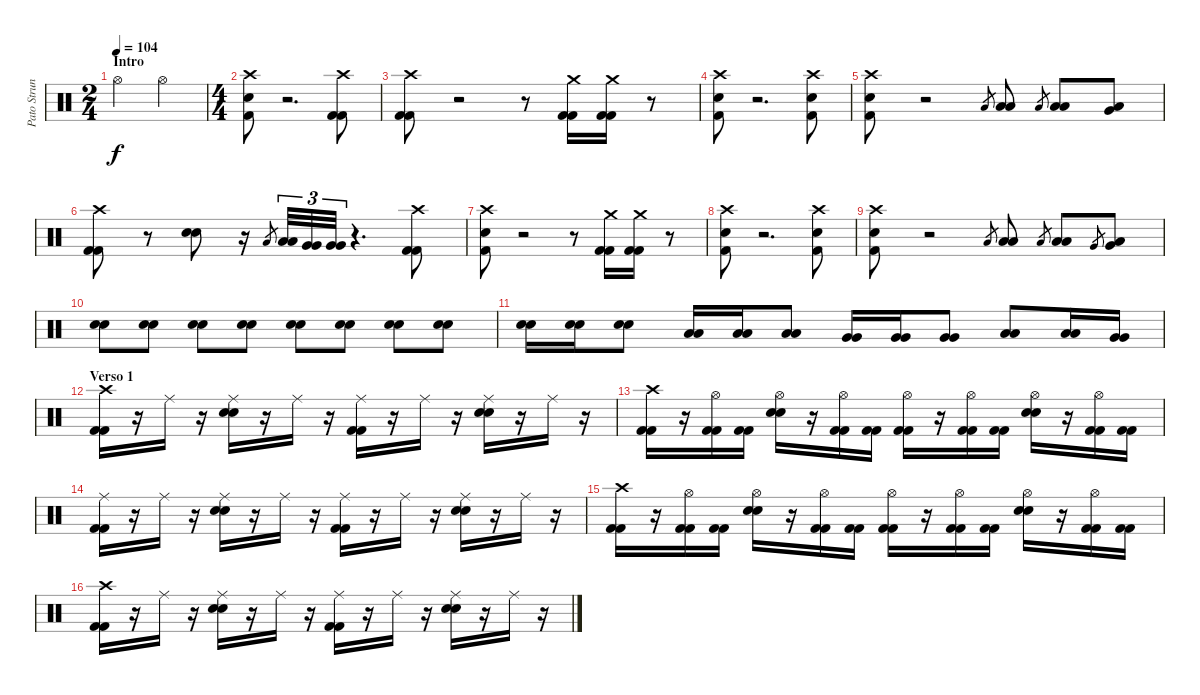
\track ("Pato Strunz (Bateria)" "Pato Strun") {instrument percussion}
\staff {score}
\articulation defaults
\ts (2 4)
\section ("" "Intro")
\tempo 104
\clef neutral
\ks c "Hi-Hat (open)".4{dy f} "Hi-Hat (open)".4
|
\ts (4 4)
("Crash high (hit)" "Snare (hit) 2" "Kick (hit) 2").8 r.2{d} ("Crash high (hit)" "Kick (hit) 2" "Kick (hit) 2").8 |
("Crash high (hit)" "Kick (hit) 2" "Kick (hit) 2").8 r.2 r.8 ("Crash medium (hit)" "Kick (hit) 2" "Kick (hit) 2").16 ("Crash medium (hit)" "Kick (hit) 2" "Kick (hit) 2").16 r.8 |
("Crash high (hit)" "Snare (hit) 2" "Kick (hit) 2").8 r.2{d} ("Crash high (hit)" "Snare (hit) 2" "Kick (hit) 2").8 |
("Crash high (hit)" "Snare (hit) 2" "Kick (hit) 2").8 r.2 "Low Tom (hit)".8{gr} ("Low Tom (hit)" "Low Tom (hit)").8 "Low Tom (hit)".8{gr} ("Low Tom (hit)" "Low Tom (hit)").8 ("Very Low Tom (hit)" "Low Floor Tom (hit)").8 |
("Crash high (hit)" "Kick (hit) 2" "Kick (hit) 2").8 r.8 ("Snare (hit) 2" "Snare (hit) 2").8 r.16 "Low Tom (hit)".8{gr} ("Low Tom (hit)" "Low Tom (hit)").32{tu (3 2)} ("Very Low Tom (hit)" "Very Low Tom (hit)").32{tu (3 2)} ("Very Low Tom (hit)" "Very Low Tom (hit)").32{tu (3 2)} r.4{d} ("Crash high (hit)" "Kick (hit) 2" "Kick (hit) 2").8 |
("Crash high (hit)" "Snare (hit) 2" "Kick (hit) 2").8 r.2 r.8 ("Crash medium (hit)" "Kick (hit) 2" "Kick (hit) 2").16 ("Crash medium (hit)" "Kick (hit) 2" "Kick (hit) 2").16 r.8 |
("Crash high (hit)" "Snare (hit) 2" "Kick (hit) 2").8 r.2{d} ("Crash high (hit)" "Snare (hit) 2" "Kick (hit) 2").8 |
("Crash high (hit)" "Snare (hit) 2" "Kick (hit) 2").8 r.2 "Low Tom (hit)".8{gr} ("Low Tom (hit)" "Low Tom (hit)").8 "Low Tom (hit)".8{gr} ("Low Tom (hit)" "Low Tom (hit)").8 "Very Low Tom (hit)".8{gr} ("Very Low Tom (hit)" "Low Floor Tom (hit)").8 |
("Snare (hit) 2" "Snare (hit) 2").8 ("Snare (hit) 2" "Snare (hit) 2").8 ("Snare (hit) 2" "Snare (hit) 2").8 ("Snare (hit) 2" "Snare (hit) 2").8 ("Snare (hit) 2" "Snare (hit) 2").8 ("Snare (hit) 2" "Snare (hit) 2").8 ("Snare (hit) 2" "Snare (hit) 2").8 ("Snare (hit) 2" "Snare (hit) 2").8 |
("Snare (hit) 2" "Snare (hit) 2").16 ("Snare (hit) 2" "Snare (hit) 2").16 ("Snare (hit) 2" "Snare (hit) 2").8 ("Low Tom (hit)" "Low Tom (hit)").16 ("Low Tom (hit)" "Low Tom (hit)").16 ("Low Tom (hit)" "Low Tom (hit)").8 ("Very Low Tom (hit)" "Very Low Tom (hit)").16 ("Very Low Tom (hit)" "Very Low Tom (hit)").16 ("Very Low Tom (hit)" "Very Low Tom (hit)").8 ("Low Floor Tom (hit)" "Low Floor Tom (hit)").8 ("Low Floor Tom (hit)" "Low Floor Tom (hit)").16 ("Very Low Tom (hit)" "Very Low Tom (hit)").16 |
\section ("" "Verso 1")
("Crash high (hit)" "Kick (hit) 2" "Kick (hit) 2").16 r.16 "Ride (middle)".16 r.16 ("Ride (middle)" "Snare (hit) 2" "Snare (hit) 2").16 r.16 "Ride (middle)".16 r.16 ("Ride (middle)" "Kick (hit) 2" "Kick (hit) 2").16 r.16 "Ride (middle)".16 r.16 ("Ride (middle)" "Snare (hit) 2" "Snare (hit) 2").16 r.16 "Ride (middle)".16 r.16 |
("Crash high (hit)" "Kick (hit) 2" "Kick (hit) 2").16 r.16 ("Hi-Hat (open)" "Kick (hit) 2" "Kick (hit) 2").16 ("Kick (hit) 2" "Kick (hit) 2").16 ("Hi-Hat (open)" "Snare (hit) 2" "Snare (hit) 2").16 r.16 ("Hi-Hat (open)" "Kick (hit) 2" "Kick (hit) 2").16 ("Kick (hit) 2" "Kick (hit) 2").16 ("Hi-Hat (open)" "Kick (hit) 2" "Kick (hit) 2").16 r.16 ("Hi-Hat (open)" "Kick (hit) 2" "Kick (hit) 2").16 ("Kick (hit) 2" "Kick (hit) 2").16 ("Hi-Hat (open)" "Snare (hit) 2" "Snare (hit) 2").16 r.16 ("Hi-Hat (open)" "Kick (hit) 2" "Kick (hit) 2").16 ("Kick (hit) 2" "Kick (hit) 2").16 |
("Ride (middle)" "Kick (hit) 2" "Kick (hit) 2").16 r.16 "Ride (middle)".16 r.16 ("Ride (middle)" "Snare (hit) 2" "Snare (hit) 2").16 r.16 "Ride (middle)".16 r.16 ("Ride (middle)" "Kick (hit) 2" "Kick (hit) 2").16 r.16 "Ride (middle)".16 r.16 ("Ride (middle)" "Snare (hit) 2" "Snare (hit) 2").16 r.16 "Ride (middle)".16 r.16 |
("Crash high (hit)" "Kick (hit) 2" "Kick (hit) 2").16 r.16 ("Hi-Hat (open)" "Kick (hit) 2" "Kick (hit) 2").16 ("Kick (hit) 2" "Kick (hit) 2").16 ("Hi-Hat (open)" "Snare (hit) 2" "Snare (hit) 2").16 r.16 ("Hi-Hat (open)" "Kick (hit) 2" "Kick (hit) 2").16 ("Kick (hit) 2" "Kick (hit) 2").16 ("Hi-Hat (open)" "Kick (hit) 2" "Kick (hit) 2").16 r.16 ("Hi-Hat (open)" "Kick (hit) 2" "Kick (hit) 2").16 ("Kick (hit) 2" "Kick (hit) 2").16 ("Hi-Hat (open)" "Snare (hit) 2" "Snare (hit) 2").16 r.16 ("Hi-Hat (open)" "Kick (hit) 2" "Kick (hit) 2").16 ("Kick (hit) 2" "Kick (hit) 2").16 |
("Crash high (hit)" "Kick (hit) 2" "Kick (hit) 2").16 r.16 "Ride (middle)".16 r.16 ("Ride (middle)" "Snare (hit) 2" "Snare (hit) 2").16 r.16 "Ride (middle)".16 r.16 ("Ride (middle)" "Kick (hit) 2" "Kick (hit) 2").16 r.16 "Ride (middle)".16 r.16 ("Ride (middle)" "Snare (hit) 2" "Snare (hit) 2").16 r.16 "Ride (middle)".16 r.16
